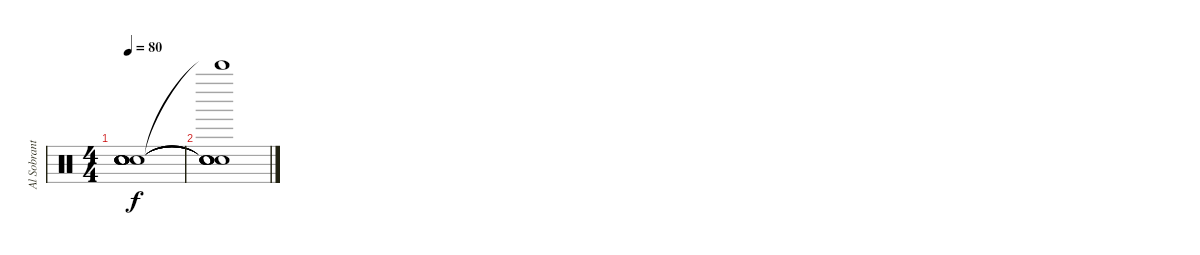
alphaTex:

\track ("Al Sobrante (Drums)" "Al Sobrant") {instrument percussion}
\staff {score}
\articulation defaults
\ts (4 4)
\tempo 80
\clef neutral
\ks c
("Snare (hit)"{t} "Snare (hit)"{t} "Snare (hit)"{t} "Snare (hit)"{t} "Snare (hit)"{t} "Snare (hit)"{t}).1{dy f} |
("Snare (hit)"{t} "Snare (hit)"{t} "Snare (hit)"{t} "Snare (hit)"{t} "Snare (hit)"{t} "Bell Tree (hit)"{t}).1
